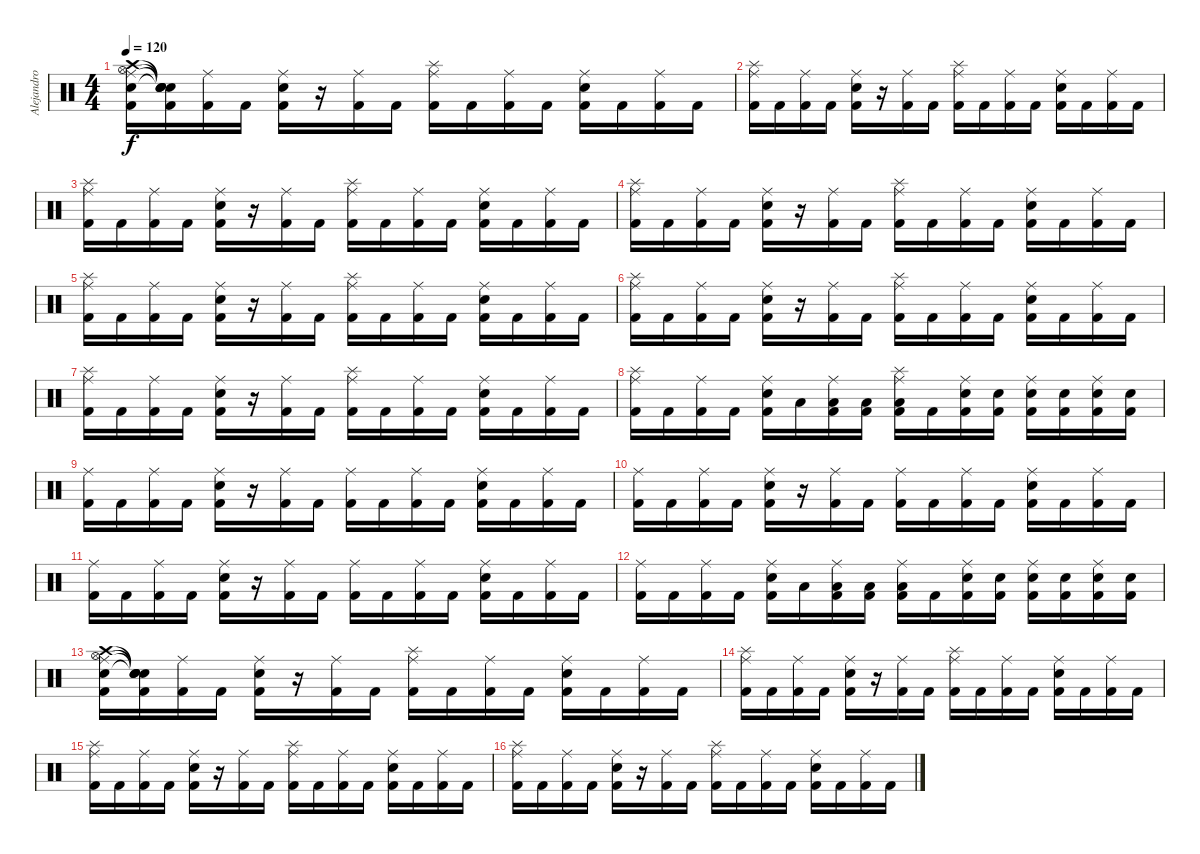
\track ("Alejandro" "Alejandro") {instrument percussion}
\staff {score}
\articulation defaults
\ts (4 4)
\tempo 120
\clef neutral
\ks c
("Kick (hit) 2" "Snare (hit) 2" "Hi-Hat (open)" "Crash high (hit)" "Ride (middle)").16{dy f} ("Kick (hit) 2" "Snare (hit)"{t} "Snare (hit)"{t} "Snare (hit)"{t} "Snare (hit)"{t}).16 ("Kick (hit) 2" "Ride (middle)").16 "Kick (hit) 2".16 ("Kick (hit) 2" "Snare (hit) 2" "Ride (middle)").16 r.16 ("Kick (hit) 2" "Ride (middle)").16 "Kick (hit) 2".16 ("Kick (hit) 2" "Splash (hit)" "Ride (middle)").16 "Kick (hit) 2".16 ("Kick (hit) 2" "Ride (middle)").16 "Kick (hit) 2".16 ("Kick (hit) 2" "Snare (hit) 2" "Ride (middle)").16 "Kick (hit) 2".16 ("Kick (hit) 2" "Ride (middle)").16 "Kick (hit) 2".16 |
("Kick (hit) 2" "Splash (hit)" "Ride (middle)").16 "Kick (hit) 2".16 ("Kick (hit) 2" "Ride (middle)").16 "Kick (hit) 2".16 ("Kick (hit) 2" "Snare (hit) 2" "Ride (middle)").16 r.16 ("Kick (hit) 2" "Ride (middle)").16 "Kick (hit) 2".16 ("Kick (hit) 2" "Splash (hit)" "Ride (middle)").16 "Kick (hit) 2".16 ("Kick (hit) 2" "Ride (middle)").16 "Kick (hit) 2".16 ("Kick (hit) 2" "Snare (hit) 2" "Ride (middle)").16 "Kick (hit) 2".16 ("Kick (hit) 2" "Ride (middle)").16 "Kick (hit) 2".16 |
("Kick (hit) 2" "Splash (hit)" "Ride (middle)").16 "Kick (hit) 2".16 ("Kick (hit) 2" "Ride (middle)").16 "Kick (hit) 2".16 ("Kick (hit) 2" "Snare (hit) 2" "Ride (middle)").16 r.16 ("Kick (hit) 2" "Ride (middle)").16 "Kick (hit) 2".16 ("Kick (hit) 2" "Splash (hit)" "Ride (middle)").16 "Kick (hit) 2".16 ("Kick (hit) 2" "Ride (middle)").16 "Kick (hit) 2".16 ("Kick (hit) 2" "Snare (hit) 2" "Ride (middle)").16 "Kick (hit) 2".16 ("Kick (hit) 2" "Ride (middle)").16 "Kick (hit) 2".16 |
("Kick (hit) 2" "Splash (hit)" "Ride (middle)").16 "Kick (hit) 2".16 ("Kick (hit) 2" "Ride (middle)").16 "Kick (hit) 2".16 ("Kick (hit) 2" "Snare (hit) 2" "Ride (middle)").16 r.16 ("Kick (hit) 2" "Ride (middle)").16 "Kick (hit) 2".16 ("Kick (hit) 2" "Splash (hit)" "Ride (middle)").16 "Kick (hit) 2".16 ("Kick (hit) 2" "Ride (middle)").16 "Kick (hit) 2".16 ("Kick (hit) 2" "Snare (hit) 2" "Ride (middle)").16 "Kick (hit) 2".16 ("Kick (hit) 2" "Ride (middle)").16 "Kick (hit) 2".16 |
("Kick (hit) 2" "Splash (hit)" "Ride (middle)").16 "Kick (hit) 2".16 ("Kick (hit) 2" "Ride (middle)").16 "Kick (hit) 2".16 ("Kick (hit) 2" "Snare (hit) 2" "Ride (middle)").16 r.16 ("Kick (hit) 2" "Ride (middle)").16 "Kick (hit) 2".16 ("Kick (hit) 2" "Splash (hit)" "Ride (middle)").16 "Kick (hit) 2".16 ("Kick (hit) 2" "Ride (middle)").16 "Kick (hit) 2".16 ("Kick (hit) 2" "Snare (hit) 2" "Ride (middle)").16 "Kick (hit) 2".16 ("Kick (hit) 2" "Ride (middle)").16 "Kick (hit) 2".16 |
("Kick (hit) 2" "Splash (hit)" "Ride (middle)").16 "Kick (hit) 2".16 ("Kick (hit) 2" "Ride (middle)").16 "Kick (hit) 2".16 ("Kick (hit) 2" "Snare (hit) 2" "Ride (middle)").16 r.16 ("Kick (hit) 2" "Ride (middle)").16 "Kick (hit) 2".16 ("Kick (hit) 2" "Splash (hit)" "Ride (middle)").16 "Kick (hit) 2".16 ("Kick (hit) 2" "Ride (middle)").16 "Kick (hit) 2".16 ("Kick (hit) 2" "Snare (hit) 2" "Ride (middle)").16 "Kick (hit) 2".16 ("Kick (hit) 2" "Ride (middle)").16 "Kick (hit) 2".16 |
("Kick (hit) 2" "Splash (hit)" "Ride (middle)").16 "Kick (hit) 2".16 ("Kick (hit) 2" "Ride (middle)").16 "Kick (hit) 2".16 ("Kick (hit) 2" "Snare (hit) 2" "Ride (middle)").16 r.16 ("Kick (hit) 2" "Ride (middle)").16 "Kick (hit) 2".16 ("Kick (hit) 2" "Splash (hit)" "Ride (middle)").16 "Kick (hit) 2".16 ("Kick (hit) 2" "Ride (middle)").16 "Kick (hit) 2".16 ("Kick (hit) 2" "Snare (hit) 2" "Ride (middle)").16 "Kick (hit) 2".16 ("Kick (hit) 2" "Ride (middle)").16 "Kick (hit) 2".16 |
("Kick (hit) 2" "Splash (hit)" "Ride (middle)").16 "Kick (hit) 2".16 ("Kick (hit) 2" "Ride (middle)").16 "Kick (hit) 2".16 ("Kick (hit) 2" "Snare (hit) 2" "Ride (middle)").16 "Low Floor Tom (hit)".16 ("Kick (hit) 2" "Low Floor Tom (hit)" "Ride (middle)").16 ("Kick (hit) 2" "Low Floor Tom (hit)").16 ("Kick (hit) 2" "Low Floor Tom (hit)" "Splash (hit)" "Ride (middle)").16 "Kick (hit) 2".16 ("Kick (hit) 2" "Snare (hit) 2" "Ride (middle)").16 ("Kick (hit) 2" "Snare (hit) 2").16 ("Kick (hit) 2" "Snare (hit) 2" "Ride (middle)").16 ("Kick (hit) 2" "Snare (hit) 2").16 ("Kick (hit) 2" "Snare (hit) 2" "Ride (middle)").16 ("Kick (hit) 2" "Snare (hit) 2").16 |
("Kick (hit) 2" "Ride (middle)").16 "Kick (hit) 2".16 ("Kick (hit) 2" "Ride (middle)").16 "Kick (hit) 2".16 ("Kick (hit) 2" "Snare (hit) 2" "Ride (middle)").16 r.16 ("Kick (hit) 2" "Ride (middle)").16 "Kick (hit) 2".16 ("Kick (hit) 2" "Ride (middle)").16 "Kick (hit) 2".16 ("Kick (hit) 2" "Ride (middle)").16 "Kick (hit) 2".16 ("Kick (hit) 2" "Snare (hit) 2" "Ride (middle)").16 "Kick (hit) 2".16 ("Kick (hit) 2" "Ride (middle)").16 "Kick (hit) 2".16 |
("Kick (hit) 2" "Ride (middle)").16 "Kick (hit) 2".16 ("Kick (hit) 2" "Ride (middle)").16 "Kick (hit) 2".16 ("Kick (hit) 2" "Snare (hit) 2" "Ride (middle)").16 r.16 ("Kick (hit) 2" "Ride (middle)").16 "Kick (hit) 2".16 ("Kick (hit) 2" "Ride (middle)").16 "Kick (hit) 2".16 ("Kick (hit) 2" "Ride (middle)").16 "Kick (hit) 2".16 ("Kick (hit) 2" "Snare (hit) 2" "Ride (middle)").16 "Kick (hit) 2".16 ("Kick (hit) 2" "Ride (middle)").16 "Kick (hit) 2".16 |
("Kick (hit) 2" "Ride (middle)").16 "Kick (hit) 2".16 ("Kick (hit) 2" "Ride (middle)").16 "Kick (hit) 2".16 ("Kick (hit) 2" "Snare (hit) 2" "Ride (middle)").16 r.16 ("Kick (hit) 2" "Ride (middle)").16 "Kick (hit) 2".16 ("Kick (hit) 2" "Ride (middle)").16 "Kick (hit) 2".16 ("Kick (hit) 2" "Ride (middle)").16 "Kick (hit) 2".16 ("Kick (hit) 2" "Snare (hit) 2" "Ride (middle)").16 "Kick (hit) 2".16 ("Kick (hit) 2" "Ride (middle)").16 "Kick (hit) 2".16 |
("Kick (hit) 2" "Ride (middle)").16 "Kick (hit) 2".16 ("Kick (hit) 2" "Ride (middle)").16 "Kick (hit) 2".16 ("Kick (hit) 2" "Snare (hit) 2" "Ride (middle)").16 "Low Floor Tom (hit)".16 ("Kick (hit) 2" "Low Floor Tom (hit)" "Ride (middle)").16 ("Kick (hit) 2" "Low Floor Tom (hit)").16 ("Kick (hit) 2" "Low Floor Tom (hit)" "Ride (middle)").16 "Kick (hit) 2".16 ("Kick (hit) 2" "Snare (hit) 2" "Ride (middle)").16 ("Kick (hit) 2" "Snare (hit) 2").16 ("Kick (hit) 2" "Snare (hit) 2" "Ride (middle)").16 ("Kick (hit) 2" "Snare (hit) 2").16 ("Kick (hit) 2" "Snare (hit) 2" "Ride (middle)").16 ("Kick (hit) 2" "Snare (hit) 2").16 |
("Kick (hit) 2" "Snare (hit) 2" "Hi-Hat (open)" "Crash high (hit)" "Ride (middle)").16 ("Kick (hit) 2" "Snare (hit)"{t} "Snare (hit)"{t} "Snare (hit)"{t} "Snare (hit)"{t}).16 ("Kick (hit) 2" "Ride (middle)").16 "Kick (hit) 2".16 ("Kick (hit) 2" "Snare (hit) 2" "Ride (middle)").16 r.16 ("Kick (hit) 2" "Ride (middle)").16 "Kick (hit) 2".16 ("Kick (hit) 2" "Splash (hit)" "Ride (middle)").16 "Kick (hit) 2".16 ("Kick (hit) 2" "Ride (middle)").16 "Kick (hit) 2".16 ("Kick (hit) 2" "Snare (hit) 2" "Ride (middle)").16 "Kick (hit) 2".16 ("Kick (hit) 2" "Ride (middle)").16 "Kick (hit) 2".16 |
("Kick (hit) 2" "Splash (hit)" "Ride (middle)").16 "Kick (hit) 2".16 ("Kick (hit) 2" "Ride (middle)").16 "Kick (hit) 2".16 ("Kick (hit) 2" "Snare (hit) 2" "Ride (middle)").16 r.16 ("Kick (hit) 2" "Ride (middle)").16 "Kick (hit) 2".16 ("Kick (hit) 2" "Splash (hit)" "Ride (middle)").16 "Kick (hit) 2".16 ("Kick (hit) 2" "Ride (middle)").16 "Kick (hit) 2".16 ("Kick (hit) 2" "Snare (hit) 2" "Ride (middle)").16 "Kick (hit) 2".16 ("Kick (hit) 2" "Ride (middle)").16 "Kick (hit) 2".16 |
("Kick (hit) 2" "Splash (hit)" "Ride (middle)").16 "Kick (hit) 2".16 ("Kick (hit) 2" "Ride (middle)").16 "Kick (hit) 2".16 ("Kick (hit) 2" "Snare (hit) 2" "Ride (middle)").16 r.16 ("Kick (hit) 2" "Ride (middle)").16 "Kick (hit) 2".16 ("Kick (hit) 2" "Splash (hit)" "Ride (middle)").16 "Kick (hit) 2".16 ("Kick (hit) 2" "Ride (middle)").16 "Kick (hit) 2".16 ("Kick (hit) 2" "Snare (hit) 2" "Ride (middle)").16 "Kick (hit) 2".16 ("Kick (hit) 2" "Ride (middle)").16 "Kick (hit) 2".16 |
("Kick (hit) 2" "Splash (hit)" "Ride (middle)").16 "Kick (hit) 2".16 ("Kick (hit) 2" "Ride (middle)").16 "Kick (hit) 2".16 ("Kick (hit) 2" "Snare (hit) 2" "Ride (middle)").16 r.16 ("Kick (hit) 2" "Ride (middle)").16 "Kick (hit) 2".16 ("Kick (hit) 2" "Splash (hit)" "Ride (middle)").16 "Kick (hit) 2".16 ("Kick (hit) 2" "Ride (middle)").16 "Kick (hit) 2".16 ("Kick (hit) 2" "Snare (hit) 2" "Ride (middle)").16 "Kick (hit) 2".16 ("Kick (hit) 2" "Ride (middle)").16 "Kick (hit) 2".16
